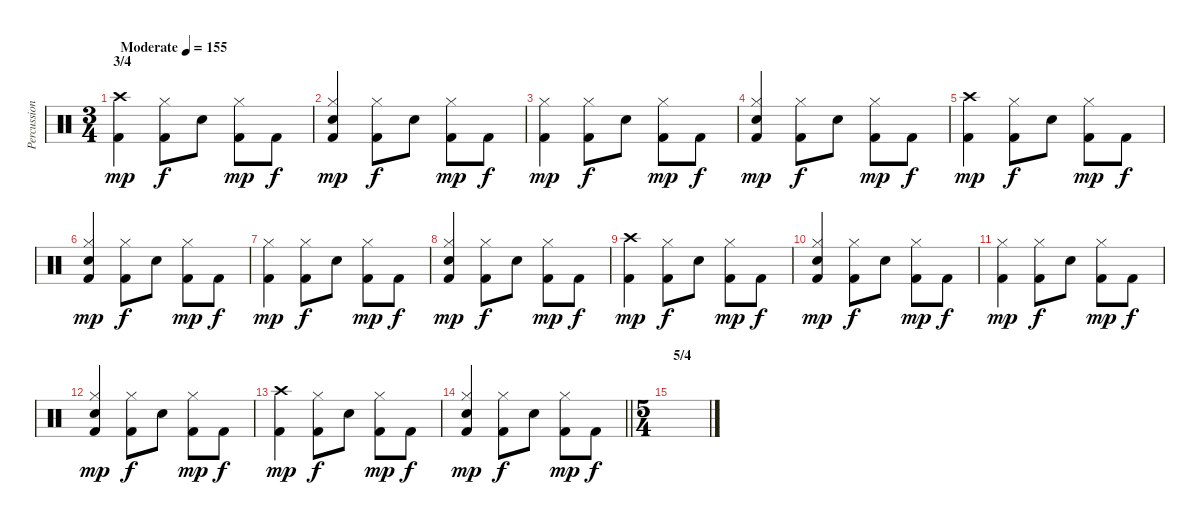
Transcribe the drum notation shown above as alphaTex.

\track ("Percussion" "Percussion") {instrument percussion}
\staff {score}
\articulation defaults
\ts (3 4)
\section ("" "3/4")
\tempo (155 "Moderate")
\clef neutral
\ks c
("Crash high (hit)" "Kick (hit) 2").4{dy mp} ("Hi-Hat (closed)" "Kick (hit) 2").8{dy f} "Snare (hit) 2".8 ("Hi-Hat (closed)" "Kick (hit) 2").8{dy mp} "Kick (hit) 2".8{dy f} |
("Hi-Hat (closed)" "Snare (hit) 2" "Kick (hit) 2").4{dy mp} ("Hi-Hat (closed)" "Kick (hit) 2").8{dy f} "Snare (hit) 2".8 ("Hi-Hat (closed)" "Kick (hit) 2").8{dy mp} "Kick (hit) 2".8{dy f} |
("Hi-Hat (closed)" "Kick (hit) 2").4{dy mp} ("Hi-Hat (closed)" "Kick (hit) 2").8{dy f} "Snare (hit) 2".8 ("Hi-Hat (closed)" "Kick (hit) 2").8{dy mp} "Kick (hit) 2".8{dy f} |
("Hi-Hat (closed)" "Snare (hit) 2" "Kick (hit) 2").4{dy mp} ("Hi-Hat (closed)" "Kick (hit) 2").8{dy f} "Snare (hit) 2".8 ("Hi-Hat (closed)" "Kick (hit) 2").8{dy mp} "Kick (hit) 2".8{dy f} |
("Crash high (hit)" "Kick (hit) 2").4{dy mp} ("Hi-Hat (closed)" "Kick (hit) 2").8{dy f} "Snare (hit) 2".8 ("Hi-Hat (closed)" "Kick (hit) 2").8{dy mp} "Kick (hit) 2".8{dy f} |
("Hi-Hat (closed)" "Snare (hit) 2" "Kick (hit) 2").4{dy mp} ("Hi-Hat (closed)" "Kick (hit) 2").8{dy f} "Snare (hit) 2".8 ("Hi-Hat (closed)" "Kick (hit) 2").8{dy mp} "Kick (hit) 2".8{dy f} |
("Hi-Hat (closed)" "Kick (hit) 2").4{dy mp} ("Hi-Hat (closed)" "Kick (hit) 2").8{dy f} "Snare (hit) 2".8 ("Hi-Hat (closed)" "Kick (hit) 2").8{dy mp} "Kick (hit) 2".8{dy f} |
("Hi-Hat (closed)" "Snare (hit) 2" "Kick (hit) 2").4{dy mp} ("Hi-Hat (closed)" "Kick (hit) 2").8{dy f} "Snare (hit) 2".8 ("Hi-Hat (closed)" "Kick (hit) 2").8{dy mp} "Kick (hit) 2".8{dy f} |
("Crash high (hit)" "Kick (hit) 2").4{dy mp} ("Hi-Hat (closed)" "Kick (hit) 2").8{dy f} "Snare (hit) 2".8 ("Hi-Hat (closed)" "Kick (hit) 2").8{dy mp} "Kick (hit) 2".8{dy f} |
("Hi-Hat (closed)" "Snare (hit) 2" "Kick (hit) 2").4{dy mp} ("Hi-Hat (closed)" "Kick (hit) 2").8{dy f} "Snare (hit) 2".8 ("Hi-Hat (closed)" "Kick (hit) 2").8{dy mp} "Kick (hit) 2".8{dy f} |
("Hi-Hat (closed)" "Kick (hit) 2").4{dy mp} ("Hi-Hat (closed)" "Kick (hit) 2").8{dy f} "Snare (hit) 2".8 ("Hi-Hat (closed)" "Kick (hit) 2").8{dy mp} "Kick (hit) 2".8{dy f} |
("Hi-Hat (closed)" "Snare (hit) 2" "Kick (hit) 2").4{dy mp} ("Hi-Hat (closed)" "Kick (hit) 2").8{dy f} "Snare (hit) 2".8 ("Hi-Hat (closed)" "Kick (hit) 2").8{dy mp} "Kick (hit) 2".8{dy f} |
("Crash high (hit)" "Kick (hit) 2").4{dy mp} ("Hi-Hat (closed)" "Kick (hit) 2").8{dy f} "Snare (hit) 2".8 ("Hi-Hat (closed)" "Kick (hit) 2").8{dy mp} "Kick (hit) 2".8{dy f} |
\barLineRight lightlight
("Hi-Hat (closed)" "Snare (hit) 2" "Kick (hit) 2").4{dy mp} ("Hi-Hat (closed)" "Kick (hit) 2").8{dy f} "Snare (hit) 2".8 ("Hi-Hat (closed)" "Kick (hit) 2").8{dy mp} "Kick (hit) 2".8{dy f} |
\ts (5 4)
\section ("" "5/4")
